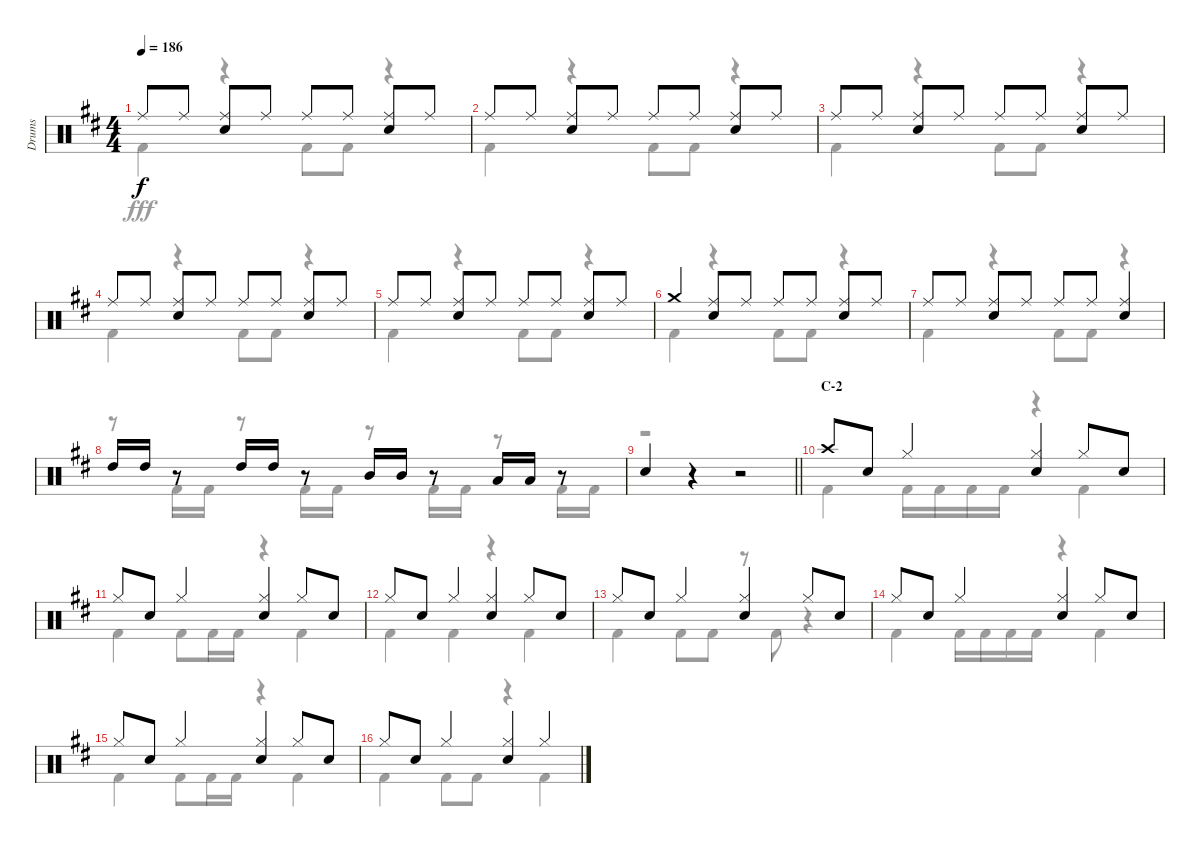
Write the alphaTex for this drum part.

\track ("Drums" "Drums") {instrument percussion}
\staff {score}
\articulation defaults
\voice
\ts (4 4)
\tempo 186
\clef neutral
\ks d "Ride (middle)".8{dy f} "Ride (middle)".8
("Ride (middle)" "Snare (hit) 2").8 "Ride (middle)".8 "Ride (middle)".8 "Ride (middle)".8 ("Ride (middle)" "Snare (hit) 2").8 "Ride (middle)".8 |
"Ride (middle)".8 "Ride (middle)".8 ("Ride (middle)" "Snare (hit) 2").8 "Ride (middle)".8 "Ride (middle)".8 "Ride (middle)".8 ("Ride (middle)" "Snare (hit) 2").8 "Ride (middle)".8 |
"Ride (middle)".8 "Ride (middle)".8 ("Ride (middle)" "Snare (hit) 2").8 "Ride (middle)".8 "Ride (middle)".8 "Ride (middle)".8 ("Ride (middle)" "Snare (hit) 2").8 "Ride (middle)".8 |
"Ride (middle)".8 "Ride (middle)".8 ("Ride (middle)" "Snare (hit) 2").8 "Ride (middle)".8 "Ride (middle)".8 "Ride (middle)".8 ("Ride (middle)" "Snare (hit) 2").8 "Ride (middle)".8 |
"Ride (middle)".8 "Ride (middle)".8 ("Ride (middle)" "Snare (hit) 2").8 "Ride (middle)".8 "Ride (middle)".8 "Ride (middle)".8 ("Ride (middle)" "Snare (hit) 2").8 "Ride (middle)".8 |
"Crash medium (hit)".4 ("Ride (middle)" "Snare (hit) 2").8 "Ride (middle)".8 "Ride (middle)".8 "Ride (middle)".8 ("Ride (middle)" "Snare (hit) 2").8 "Ride (middle)".8 |
"Ride (middle)".8 "Ride (middle)".8 ("Ride (middle)" "Snare (hit) 2").8 "Ride (middle)".8 "Ride (middle)".8 "Ride (middle)".8 ("Ride (middle)" "Snare (hit) 2").4 |
"High Tom (hit)".16 "High Tom (hit)".16 r.8 "High Tom (hit)".16 "High Tom (hit)".16 r.8 "Mid Tom (hit)".16 "Mid Tom (hit)".16 r.8 "Low Tom (hit)".16 "Low Tom (hit)".16 r.8 |
\barLineRight lightlight "Snare (hit) 2".4
r.4 r.2 |
\section ("" "C-2")
"Crash high (hit)".8 "Snare (hit) 2".8 "Hi-Hat (closed)".4 ("Hi-Hat (closed)" "Snare (hit) 2").4 "Hi-Hat (closed)".8 "Snare (hit) 2".8 |
"Hi-Hat (closed)".8 "Snare (hit) 2".8 "Hi-Hat (closed)".4 ("Hi-Hat (closed)" "Snare (hit) 2").4 "Hi-Hat (closed)".8 "Snare (hit) 2".8 |
"Hi-Hat (closed)".8 "Snare (hit) 2".8 "Hi-Hat (closed)".4 ("Hi-Hat (closed)" "Snare (hit) 2").4 "Hi-Hat (closed)".8 "Snare (hit) 2".8 |
"Hi-Hat (closed)".8 "Snare (hit) 2".8 "Hi-Hat (closed)".4 ("Hi-Hat (closed)" "Snare (hit) 2").4 "Hi-Hat (closed)".8 "Snare (hit) 2".8 |
"Hi-Hat (closed)".8 "Snare (hit) 2".8 "Hi-Hat (closed)".4 ("Hi-Hat (closed)" "Snare (hit) 2").4 "Hi-Hat (closed)".8 "Snare (hit) 2".8 |
"Hi-Hat (closed)".8 "Snare (hit) 2".8 "Hi-Hat (closed)".4 ("Hi-Hat (closed)" "Snare (hit) 2").4 "Hi-Hat (closed)".8 "Snare (hit) 2".8 |
"Hi-Hat (closed)".8 "Snare (hit) 2".8 "Hi-Hat (closed)".4 ("Hi-Hat (closed)" "Snare (hit) 2").4 "Hi-Hat (closed)".4
\voice
\clef neutral
\ottava regular
\simile none
\ks d "Kick (hit) 2".4{dy fff}
r.4 "Kick (hit) 2".8 "Kick (hit) 2".8 r.4 |
"Kick (hit) 2".4 r.4 "Kick (hit) 2".8 "Kick (hit) 2".8 r.4 |
"Kick (hit) 2".4 r.4 "Kick (hit) 2".8 "Kick (hit) 2".8 r.4 |
"Kick (hit) 2".4 r.4 "Kick (hit) 2".8 "Kick (hit) 2".8 r.4 |
"Kick (hit) 2".4 r.4 "Kick (hit) 2".8 "Kick (hit) 2".8 r.4 |
"Kick (hit) 2".4 r.4 "Kick (hit) 2".8 "Kick (hit) 2".8 r.4 |
"Kick (hit) 2".4 r.4 "Kick (hit) 2".8 "Kick (hit) 2".8 r.4 |
r.8 "Kick (hit) 2".16 "Kick (hit) 2".16 r.8 "Kick (hit) 2".16 "Kick (hit) 2".16 r.8 "Kick (hit) 2".16 "Kick (hit) 2".16 r.8 "Kick (hit) 2".16 "Kick (hit) 2".16 |
\barLineRight lightlight
r.1 |
"Kick (hit) 2".4 "Kick (hit) 2".16 "Kick (hit) 2".16 "Kick (hit) 2".16 "Kick (hit) 2".16 r.4 "Kick (hit) 2".4 |
"Kick (hit) 2".4 "Kick (hit) 2".8 "Kick (hit) 2".16 "Kick (hit) 2".16 r.4 "Kick (hit) 2".4 |
"Kick (hit) 2".4 "Kick (hit) 2".4 r.4 "Kick (hit) 2".4 |
"Kick (hit) 2".4 "Kick (hit) 2".8 "Kick (hit) 2".8 r.8 "Kick (hit) 2".8 r.4 |
"Kick (hit) 2".4 "Kick (hit) 2".16 "Kick (hit) 2".16 "Kick (hit) 2".16 "Kick (hit) 2".16 r.4 "Kick (hit) 2".4 |
"Kick (hit) 2".4 "Kick (hit) 2".8 "Kick (hit) 2".16 "Kick (hit) 2".16 r.4 "Kick (hit) 2".4 |
"Kick (hit) 2".4 "Kick (hit) 2".8 "Kick (hit) 2".8 r.4 "Kick (hit) 2".4
